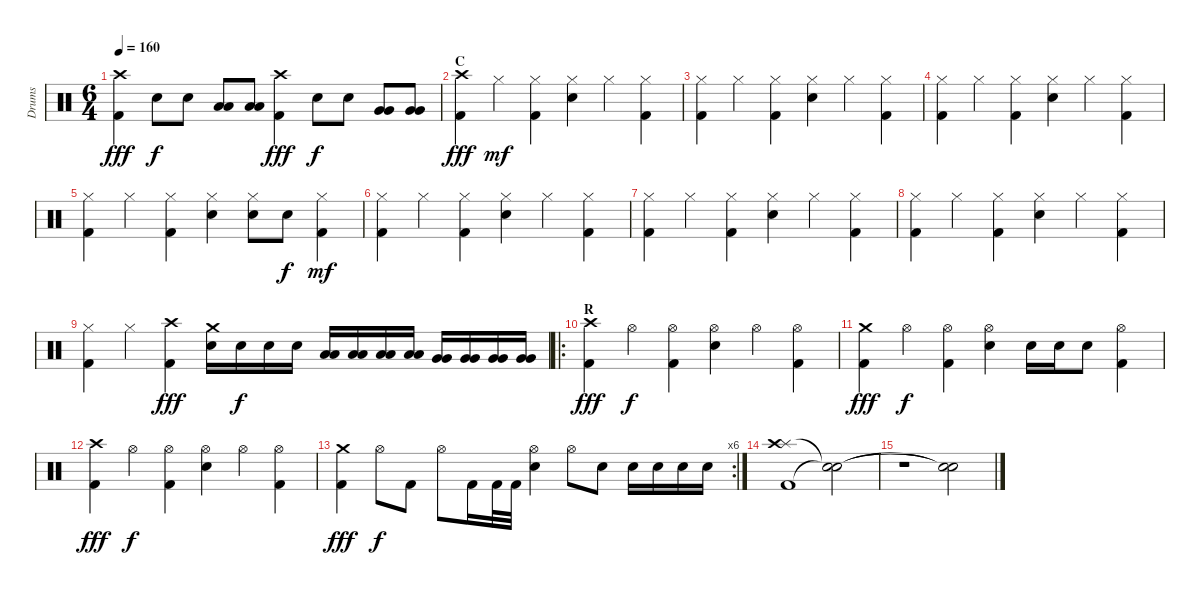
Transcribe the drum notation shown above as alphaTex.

\track ("Drums" "Drums") {instrument percussion}
\staff {score}
\articulation defaults
\ts (6 4)
\tempo 160
\clef neutral
\ks c
("Kick (hit) 2" "Crash high (hit)").4{dy fff} "Electric Snare (hit)".8{dy f} "Electric Snare (hit)".8 ("Low Tom (hit)" "Low Tom (hit)").8 ("Low Tom (hit)" "Low Tom (hit)").8 ("Kick (hit) 2" "Crash high (hit)").4{dy fff} "Electric Snare (hit)".8{dy f} "Electric Snare (hit)".8 ("Very Low Tom (hit)" "Very Low Tom (hit)").8 ("Very Low Tom (hit)" "Very Low Tom (hit)").8 |
\section ("" "C")
("Kick (hit) 2" "Crash high (hit)").4{dy fff} "Hi-Hat (closed)".4{dy mf} ("Kick (hit) 2" "Hi-Hat (closed)").4 ("Electric Snare (hit)" "Hi-Hat (closed)").4 "Hi-Hat (closed)".4 ("Kick (hit) 2" "Hi-Hat (closed)").4 |
("Kick (hit) 2" "Hi-Hat (closed)").4 "Hi-Hat (closed)".4 ("Kick (hit) 2" "Hi-Hat (closed)").4 ("Electric Snare (hit)" "Hi-Hat (closed)").4 "Hi-Hat (closed)".4 ("Kick (hit) 2" "Hi-Hat (closed)").4 |
("Kick (hit) 2" "Hi-Hat (closed)").4 "Hi-Hat (closed)".4 ("Kick (hit) 2" "Hi-Hat (closed)").4 ("Electric Snare (hit)" "Hi-Hat (closed)").4 "Hi-Hat (closed)".4 ("Kick (hit) 2" "Hi-Hat (closed)").4 |
("Kick (hit) 2" "Hi-Hat (closed)").4 "Hi-Hat (closed)".4 ("Kick (hit) 2" "Hi-Hat (closed)").4 ("Electric Snare (hit)" "Hi-Hat (closed)").4 ("Electric Snare (hit)" "Hi-Hat (closed)").8 "Electric Snare (hit)".8{dy f} ("Kick (hit) 2" "Hi-Hat (closed)").4{dy mf} |
("Kick (hit) 2" "Hi-Hat (closed)").4 "Hi-Hat (closed)".4 ("Kick (hit) 2" "Hi-Hat (closed)").4 ("Electric Snare (hit)" "Hi-Hat (closed)").4 "Hi-Hat (closed)".4 ("Kick (hit) 2" "Hi-Hat (closed)").4 |
("Kick (hit) 2" "Hi-Hat (closed)").4 "Hi-Hat (closed)".4 ("Kick (hit) 2" "Hi-Hat (closed)").4 ("Electric Snare (hit)" "Hi-Hat (closed)").4 "Hi-Hat (closed)".4 ("Kick (hit) 2" "Hi-Hat (closed)").4 |
("Kick (hit) 2" "Hi-Hat (closed)").4 "Hi-Hat (closed)".4 ("Kick (hit) 2" "Hi-Hat (closed)").4 ("Electric Snare (hit)" "Hi-Hat (closed)").4 "Hi-Hat (closed)".4 ("Kick (hit) 2" "Hi-Hat (closed)").4 |
("Kick (hit) 2" "Hi-Hat (closed)").4 "Hi-Hat (closed)".4 ("Kick (hit) 2" "Crash high (hit)").4{dy fff} ("Electric Snare (hit)" "Crash medium (hit)").16 "Electric Snare (hit)".16{dy f} "Electric Snare (hit)".16 "Electric Snare (hit)".16 ("Low Tom (hit)" "Low Tom (hit)").16 ("Low Tom (hit)" "Low Tom (hit)").16 ("Low Tom (hit)" "Low Tom (hit)").16 ("Low Tom (hit)" "Low Tom (hit)").16 ("Very Low Tom (hit)" "Very Low Tom (hit)").16 ("Very Low Tom (hit)" "Very Low Tom (hit)").16 ("Very Low Tom (hit)" "Very Low Tom (hit)").16 ("Very Low Tom (hit)" "Very Low Tom (hit)").16 |
\ro
\section ("" "R")
("Kick (hit) 2" "Crash high (hit)").4{dy fff} "Hi-Hat (open)".4{dy f} ("Kick (hit) 2" "Hi-Hat (open)").4 ("Electric Snare (hit)" "Hi-Hat (open)").4 "Hi-Hat (open)".4 ("Kick (hit) 2" "Hi-Hat (open)").4 |
("Kick (hit) 2" "Crash medium (hit)").4{dy fff} "Hi-Hat (open)".4{dy f} ("Kick (hit) 2" "Hi-Hat (open)").4 ("Electric Snare (hit)" "Hi-Hat (open)").4 "Electric Snare (hit)".16 "Electric Snare (hit)".16 "Electric Snare (hit)".8 ("Kick (hit) 2" "Hi-Hat (open)").4 |
("Kick (hit) 2" "Crash high (hit)").4{dy fff} "Hi-Hat (open)".4{dy f} ("Kick (hit) 2" "Hi-Hat (open)").4 ("Electric Snare (hit)" "Hi-Hat (open)").4 "Hi-Hat (open)".4 ("Kick (hit) 2" "Hi-Hat (open)").4 |
\rc 6
("Kick (hit) 2" "Crash medium (hit)").4{dy fff} "Hi-Hat (open)".8{dy f} "Kick (hit) 2".8 "Hi-Hat (open)".8 "Kick (hit) 2".16 "Kick (hit) 2".32 "Kick (hit) 2".32 ("Electric Snare (hit)" "Hi-Hat (open)").4 "Hi-Hat (open)".8 "Electric Snare (hit)".8 "Electric Snare (hit)".16 "Electric Snare (hit)".16 "Electric Snare (hit)".16 "Electric Snare (hit)".16 |
("Kick (hit) 2" "Splash (hit)" "Crash high (hit)").1 ("Snare (hit)"{t} "Snare (hit)"{t}).2 |
r.1 ("Snare (hit)"{t} "Snare (hit)"{t}).2
